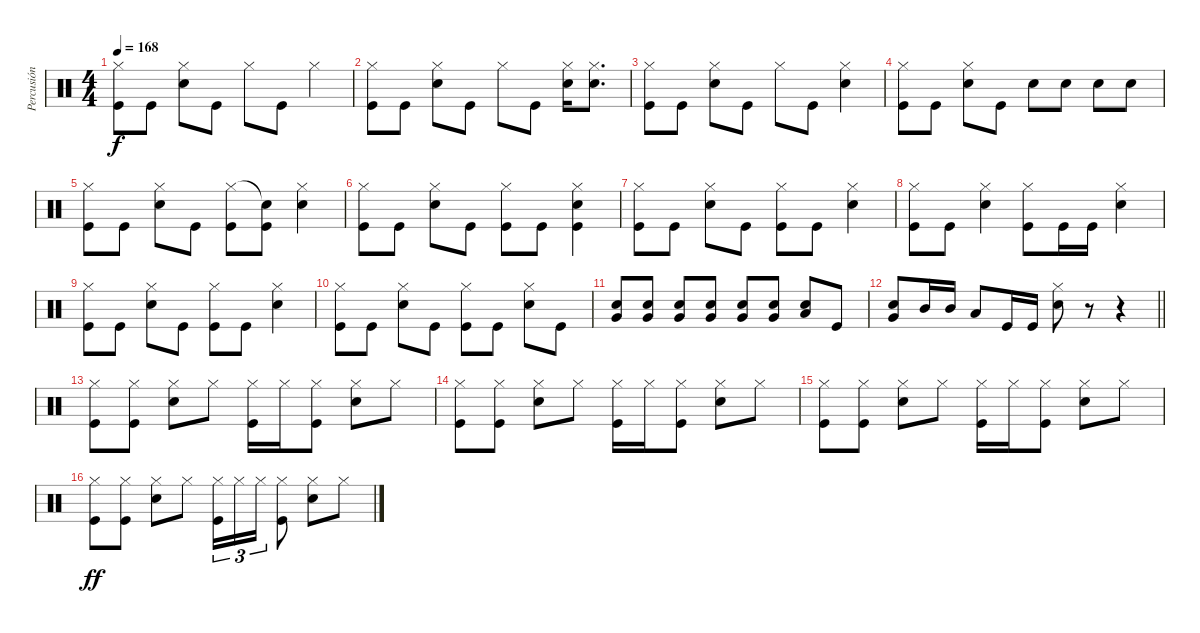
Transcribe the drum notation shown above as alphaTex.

\track ("Percusión" "Percusión") {instrument percussion}
\staff {score}
\articulation defaults
\ts (4 4)
\tempo 168
\clef neutral
\ks c
("Hi-Hat (closed)" "Kick (hit)").8{dy f} "Kick (hit)".8 ("Hi-Hat (closed)" "Snare (hit) 2").8 "Kick (hit)".8 "Hi-Hat (closed)".8 "Kick (hit)".8 "Hi-Hat (closed)".4 |
("Hi-Hat (closed)" "Kick (hit)").8 "Kick (hit)".8 ("Hi-Hat (closed)" "Snare (hit) 2").8 "Kick (hit)".8 "Hi-Hat (closed)".8 "Kick (hit)".8 ("Hi-Hat (closed)" "Snare (hit) 2").16 ("Hi-Hat (closed)" "Snare (hit) 2").8{d} |
("Hi-Hat (closed)" "Kick (hit)").8 "Kick (hit)".8 ("Hi-Hat (closed)" "Snare (hit) 2").8 "Kick (hit)".8 "Hi-Hat (closed)".8 "Kick (hit)".8 ("Hi-Hat (closed)" "Snare (hit) 2").4 |
("Hi-Hat (closed)" "Kick (hit)").8 "Kick (hit)".8 ("Hi-Hat (closed)" "Snare (hit) 2").8 "Kick (hit)".8 "Snare (hit) 2".8 "Snare (hit) 2".8 "Snare (hit) 2".8 "Snare (hit) 2".8 |
("Hi-Hat (closed)" "Kick (hit)").8 "Kick (hit)".8 ("Hi-Hat (closed)" "Snare (hit) 2").8 "Kick (hit)".8 ("Hi-Hat (closed)" "Kick (hit)").8 ("Snare (hit)"{t} "Kick (hit)").8 ("Hi-Hat (closed)" "Snare (hit) 2").4 |
("Hi-Hat (closed)" "Kick (hit)").8 "Kick (hit)".8 ("Hi-Hat (closed)" "Snare (hit) 2").8 "Kick (hit)".8 ("Hi-Hat (closed)" "Kick (hit)").8 "Kick (hit)".8 ("Hi-Hat (closed)" "Snare (hit) 2" "Kick (hit)").4 |
("Hi-Hat (closed)" "Kick (hit)").8 "Kick (hit)".8 ("Hi-Hat (closed)" "Snare (hit) 2").8 "Kick (hit)".8 ("Hi-Hat (closed)" "Kick (hit)").8 "Kick (hit)".8 ("Hi-Hat (closed)" "Snare (hit) 2").4 |
("Hi-Hat (closed)" "Kick (hit)").8 "Kick (hit)".8 ("Hi-Hat (closed)" "Snare (hit) 2").4 ("Hi-Hat (closed)" "Kick (hit)").8 "Kick (hit)".16 "Kick (hit)".16 ("Hi-Hat (closed)" "Snare (hit) 2").4 |
("Hi-Hat (closed)" "Kick (hit)").8 "Kick (hit)".8 ("Hi-Hat (closed)" "Snare (hit) 2").8 "Kick (hit)".8 ("Hi-Hat (closed)" "Kick (hit)").8 "Kick (hit)".8 ("Hi-Hat (closed)" "Snare (hit) 2").4 |
("Hi-Hat (closed)" "Kick (hit)").8 "Kick (hit)".8 ("Hi-Hat (closed)" "Snare (hit) 2").8 "Kick (hit)".8 ("Hi-Hat (closed)" "Kick (hit)").8 "Kick (hit)".8 ("Hi-Hat (closed)" "Snare (hit) 2").8 "Kick (hit)".8 |
("Snare (hit) 2" "Very Low Tom (hit)").8 ("Snare (hit) 2" "Very Low Tom (hit)").8 ("Snare (hit) 2" "Very Low Tom (hit)").8 ("Snare (hit) 2" "Very Low Tom (hit)").8 ("Snare (hit) 2" "Very Low Tom (hit)").8 ("Snare (hit) 2" "Very Low Tom (hit)").8 ("Snare (hit) 2" "Low Floor Tom (hit)").8 "Kick (hit)".8 |
\barLineRight lightlight
("Snare (hit) 2" "Very Low Tom (hit)").8 "Mid Tom (hit)".16 "Mid Tom (hit)".16 "Low Tom (hit)".8 "Kick (hit)".16 "Kick (hit)".16 ("Hi-Hat (closed)" "Snare (hit) 2").8 r.8 r.4 |
("Hi-Hat (closed)" "Kick (hit)").8 ("Hi-Hat (closed)" "Kick (hit)").8 ("Hi-Hat (closed)" "Snare (hit) 2").8 "Hi-Hat (closed)".8 ("Hi-Hat (closed)" "Kick (hit)").16 "Hi-Hat (closed)".16 ("Hi-Hat (closed)" "Kick (hit)").8 ("Hi-Hat (closed)" "Snare (hit) 2").8 "Hi-Hat (closed)".8 |
("Hi-Hat (closed)" "Kick (hit)").8 ("Hi-Hat (closed)" "Kick (hit)").8 ("Hi-Hat (closed)" "Snare (hit) 2").8 "Hi-Hat (closed)".8 ("Hi-Hat (closed)" "Kick (hit)").16 "Hi-Hat (closed)".16 ("Hi-Hat (closed)" "Kick (hit)").8 ("Hi-Hat (closed)" "Snare (hit) 2").8 "Hi-Hat (closed)".8 |
("Hi-Hat (closed)" "Kick (hit)").8 ("Hi-Hat (closed)" "Kick (hit)").8 ("Hi-Hat (closed)" "Snare (hit) 2").8 "Hi-Hat (closed)".8 ("Hi-Hat (closed)" "Kick (hit)").16 "Hi-Hat (closed)".16 ("Hi-Hat (closed)" "Kick (hit)").8 ("Hi-Hat (closed)" "Snare (hit) 2").8 "Hi-Hat (closed)".8 |
("Hi-Hat (closed)" "Kick (hit)").8{dy ff} ("Hi-Hat (closed)" "Kick (hit)").8 ("Hi-Hat (closed)" "Snare (hit) 2").8 "Hi-Hat (closed)".8 ("Hi-Hat (closed)" "Kick (hit)").16{tu (3 2)} "Hi-Hat (closed)".16{tu (3 2)} "Hi-Hat (closed)".16{tu (3 2)} ("Hi-Hat (closed)" "Kick (hit)").8 ("Hi-Hat (closed)" "Snare (hit) 2").8 "Hi-Hat (closed)".8
